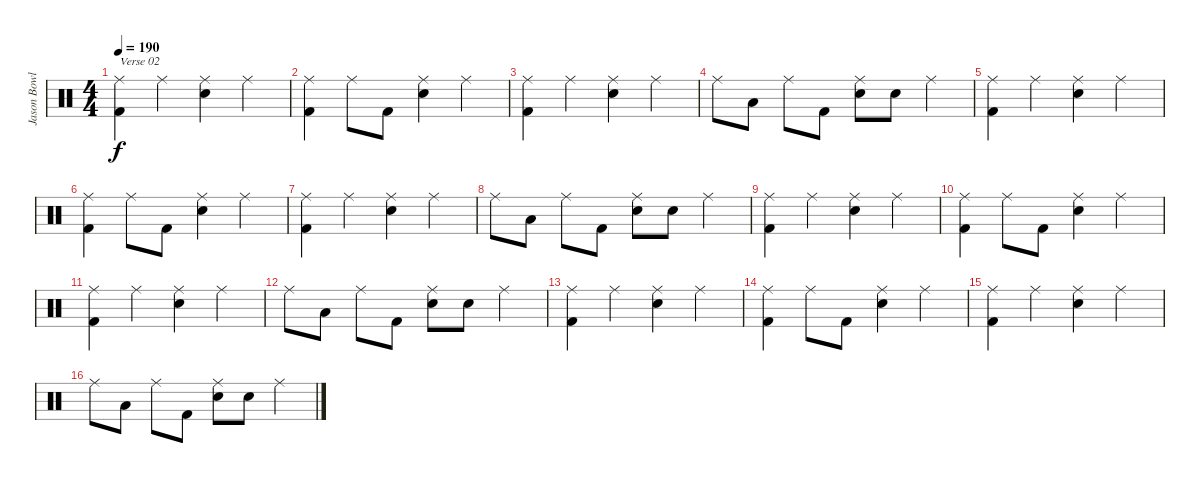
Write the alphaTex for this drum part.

\track ("Jason Bowld" "Jason Bowl") {instrument percussion}
\staff {score}
\articulation defaults
\ts (4 4)
\tempo 190
\clef neutral
\ks c
("Ride (middle)" "Kick (hit) 2").4{txt "Verse 02" dy f} "Ride (middle)".4 ("Ride (middle)" "Snare (hit) 2").4 "Ride (middle)".4 |
("Ride (middle)" "Kick (hit) 2").4 "Ride (middle)".8 "Kick (hit) 2".8 ("Ride (middle)" "Snare (hit) 2").4 "Ride (middle)".4 |
("Ride (middle)" "Kick (hit) 2").4 "Ride (middle)".4 ("Ride (middle)" "Snare (hit) 2").4 "Ride (middle)".4 |
"Ride (middle)".8 "Low Tom (hit)".8 "Ride (middle)".8 "Kick (hit) 2".8 ("Ride (middle)" "Snare (hit) 2").8 "Snare (hit) 2".8 "Ride (middle)".4 |
("Ride (middle)" "Kick (hit) 2").4 "Ride (middle)".4 ("Ride (middle)" "Snare (hit) 2").4 "Ride (middle)".4 |
("Ride (middle)" "Kick (hit) 2").4 "Ride (middle)".8 "Kick (hit) 2".8 ("Ride (middle)" "Snare (hit) 2").4 "Ride (middle)".4 |
("Ride (middle)" "Kick (hit) 2").4 "Ride (middle)".4 ("Ride (middle)" "Snare (hit) 2").4 "Ride (middle)".4 |
"Ride (middle)".8 "Low Tom (hit)".8 "Ride (middle)".8 "Kick (hit) 2".8 ("Ride (middle)" "Snare (hit) 2").8 "Snare (hit) 2".8 "Ride (middle)".4 |
("Ride (middle)" "Kick (hit) 2").4 "Ride (middle)".4 ("Ride (middle)" "Snare (hit) 2").4 "Ride (middle)".4 |
("Ride (middle)" "Kick (hit) 2").4 "Ride (middle)".8 "Kick (hit) 2".8 ("Ride (middle)" "Snare (hit) 2").4 "Ride (middle)".4 |
("Ride (middle)" "Kick (hit) 2").4 "Ride (middle)".4 ("Ride (middle)" "Snare (hit) 2").4 "Ride (middle)".4 |
"Ride (middle)".8 "Low Tom (hit)".8 "Ride (middle)".8 "Kick (hit) 2".8 ("Ride (middle)" "Snare (hit) 2").8 "Snare (hit) 2".8 "Ride (middle)".4 |
("Ride (middle)" "Kick (hit) 2").4 "Ride (middle)".4 ("Ride (middle)" "Snare (hit) 2").4 "Ride (middle)".4 |
("Ride (middle)" "Kick (hit) 2").4 "Ride (middle)".8 "Kick (hit) 2".8 ("Ride (middle)" "Snare (hit) 2").4 "Ride (middle)".4 |
("Ride (middle)" "Kick (hit) 2").4 "Ride (middle)".4 ("Ride (middle)" "Snare (hit) 2").4 "Ride (middle)".4 |
"Ride (middle)".8 "Low Tom (hit)".8 "Ride (middle)".8 "Kick (hit) 2".8 ("Ride (middle)" "Snare (hit) 2").8 "Snare (hit) 2".8 "Ride (middle)".4
